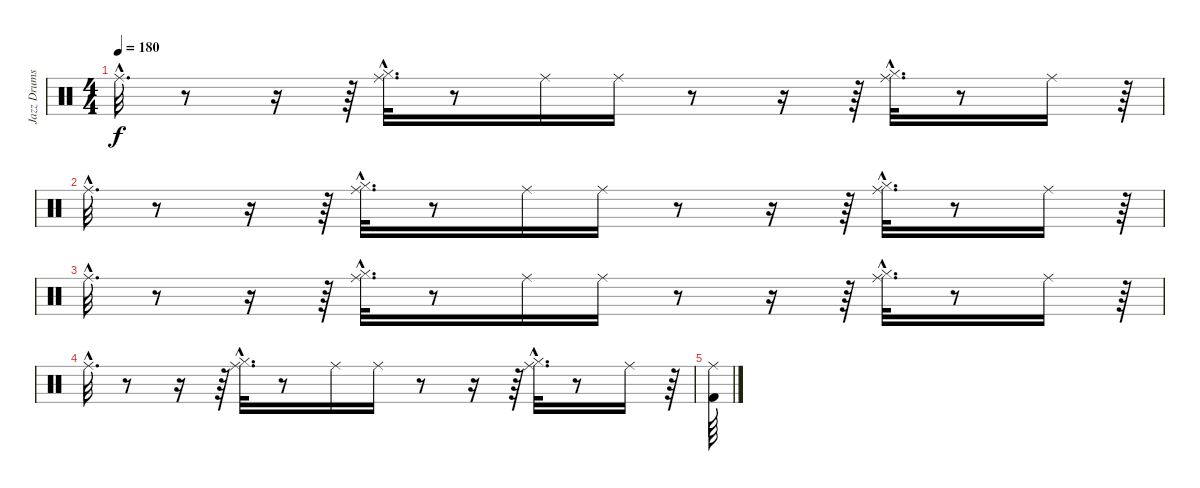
\track ("Jazz Drums" "Jazz Drums") {instrument percussion}
\staff {score}
\articulation defaults
\ts (4 4)
\tempo 180
\clef neutral
\ks c "Ride (middle)"{hac}.32{d dy f}
r.8 r.16 r.64 ("Hi-Hat (closed)"{hac} "Ride (middle)"{hac}).32{d} r.8 "Ride (middle)".16 "Ride (middle)".16 r.8 r.16 r.64 ("Hi-Hat (closed)"{hac} "Ride (middle)"{hac}).32{d} r.8 "Ride (middle)".16 r.64 |
"Ride (middle)"{hac}.32{d} r.8 r.16 r.64 ("Hi-Hat (closed)"{hac} "Ride (middle)"{hac}).32{d} r.8 "Ride (middle)".16 "Ride (middle)".16 r.8 r.16 r.64 ("Hi-Hat (closed)"{hac} "Ride (middle)"{hac}).32{d} r.8 "Ride (middle)".16 r.64 |
"Ride (middle)"{hac}.32{d} r.8 r.16 r.64 ("Hi-Hat (closed)"{hac} "Ride (middle)"{hac}).32{d} r.8 "Ride (middle)".16 "Ride (middle)".16 r.8 r.16 r.64 ("Hi-Hat (closed)"{hac} "Ride (middle)"{hac}).32{d} r.8 "Ride (middle)".16 r.64 |
"Ride (middle)"{hac}.32{d} r.8 r.16 r.64 ("Hi-Hat (closed)"{hac} "Ride (middle)"{hac}).32{d} r.8 "Ride (middle)".16 "Ride (middle)".16 r.8 r.16 r.64 ("Hi-Hat (closed)"{hac} "Ride (middle)"{hac}).32{d} r.8 "Ride (middle)".16 r.64 |
("Ride (middle)" "Kick (hit) 2").64
